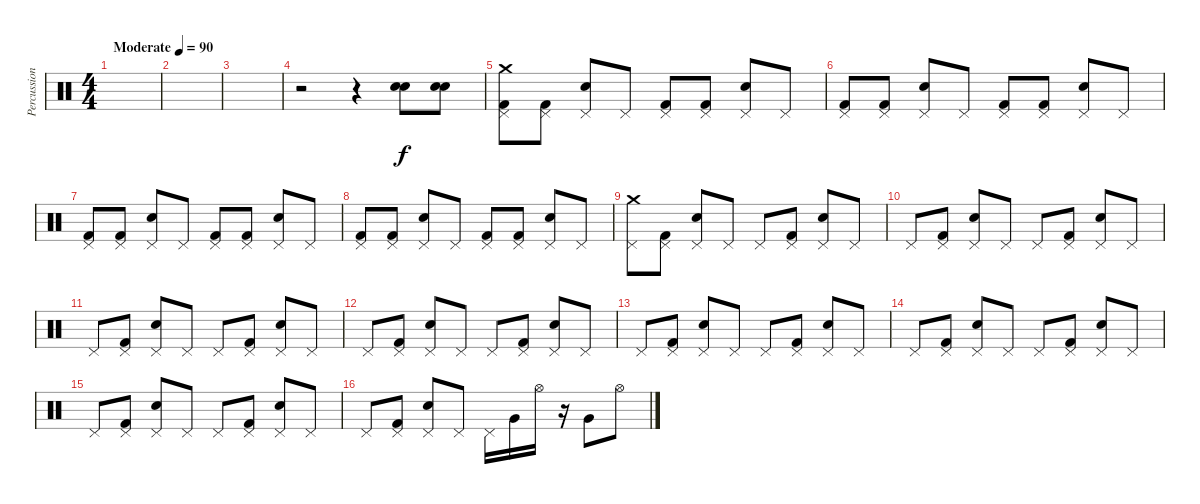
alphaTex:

\track ("Percussion" "Percussion") {instrument percussion}
\staff {score}
\articulation defaults
\ts (4 4)
\tempo (90 "Moderate")
\clef neutral
\ks c
|
|
|
r.2 r.4 ("Electric Snare (hit)" "Electric Snare (hit)").8 ("Electric Snare (hit)" "Electric Snare (hit)").8 |
("Pedal Hi-Hat (hit)" "Kick (hit) 2" "Crash medium (hit)").8 ("Pedal Hi-Hat (hit)" "Kick (hit) 2").8 ("Pedal Hi-Hat (hit)" "Electric Snare (hit)").8 "Pedal Hi-Hat (hit)".8 ("Pedal Hi-Hat (hit)" "Kick (hit) 2").8 ("Pedal Hi-Hat (hit)" "Kick (hit) 2").8 ("Pedal Hi-Hat (hit)" "Electric Snare (hit)").8 "Pedal Hi-Hat (hit)".8 |
("Pedal Hi-Hat (hit)" "Kick (hit) 2").8 ("Pedal Hi-Hat (hit)" "Kick (hit) 2").8 ("Pedal Hi-Hat (hit)" "Electric Snare (hit)").8 "Pedal Hi-Hat (hit)".8 ("Pedal Hi-Hat (hit)" "Kick (hit) 2").8 ("Pedal Hi-Hat (hit)" "Kick (hit) 2").8 ("Pedal Hi-Hat (hit)" "Electric Snare (hit)").8 "Pedal Hi-Hat (hit)".8 |
("Pedal Hi-Hat (hit)" "Kick (hit) 2").8 ("Pedal Hi-Hat (hit)" "Kick (hit) 2").8 ("Pedal Hi-Hat (hit)" "Electric Snare (hit)").8 "Pedal Hi-Hat (hit)".8 ("Pedal Hi-Hat (hit)" "Kick (hit) 2").8 ("Pedal Hi-Hat (hit)" "Kick (hit) 2").8 ("Pedal Hi-Hat (hit)" "Electric Snare (hit)").8 "Pedal Hi-Hat (hit)".8 |
("Pedal Hi-Hat (hit)" "Kick (hit) 2").8 ("Pedal Hi-Hat (hit)" "Kick (hit) 2").8 ("Pedal Hi-Hat (hit)" "Electric Snare (hit)").8 "Pedal Hi-Hat (hit)".8 ("Pedal Hi-Hat (hit)" "Kick (hit) 2").8 ("Pedal Hi-Hat (hit)" "Kick (hit) 2").8 ("Pedal Hi-Hat (hit)" "Electric Snare (hit)").8 "Pedal Hi-Hat (hit)".8 |
("Pedal Hi-Hat (hit)" "Crash medium (hit)").8 ("Pedal Hi-Hat (hit)" "Kick (hit) 2").8 ("Pedal Hi-Hat (hit)" "Electric Snare (hit)").8 "Pedal Hi-Hat (hit)".8 "Pedal Hi-Hat (hit)".8 ("Pedal Hi-Hat (hit)" "Kick (hit) 2").8 ("Pedal Hi-Hat (hit)" "Electric Snare (hit)").8 "Pedal Hi-Hat (hit)".8 |
"Pedal Hi-Hat (hit)".8 ("Pedal Hi-Hat (hit)" "Kick (hit) 2").8 ("Pedal Hi-Hat (hit)" "Electric Snare (hit)").8 "Pedal Hi-Hat (hit)".8 "Pedal Hi-Hat (hit)".8 ("Pedal Hi-Hat (hit)" "Kick (hit) 2").8 ("Pedal Hi-Hat (hit)" "Electric Snare (hit)").8 "Pedal Hi-Hat (hit)".8 |
"Pedal Hi-Hat (hit)".8 ("Pedal Hi-Hat (hit)" "Kick (hit) 2").8 ("Pedal Hi-Hat (hit)" "Electric Snare (hit)").8 "Pedal Hi-Hat (hit)".8 "Pedal Hi-Hat (hit)".8 ("Pedal Hi-Hat (hit)" "Kick (hit) 2").8 ("Pedal Hi-Hat (hit)" "Electric Snare (hit)").8 "Pedal Hi-Hat (hit)".8 |
"Pedal Hi-Hat (hit)".8 ("Pedal Hi-Hat (hit)" "Kick (hit) 2").8 ("Pedal Hi-Hat (hit)" "Electric Snare (hit)").8 "Pedal Hi-Hat (hit)".8 "Pedal Hi-Hat (hit)".8 ("Pedal Hi-Hat (hit)" "Kick (hit) 2").8 ("Pedal Hi-Hat (hit)" "Electric Snare (hit)").8 "Pedal Hi-Hat (hit)".8 |
"Pedal Hi-Hat (hit)".8 ("Pedal Hi-Hat (hit)" "Kick (hit) 2").8 ("Pedal Hi-Hat (hit)" "Electric Snare (hit)").8 "Pedal Hi-Hat (hit)".8 "Pedal Hi-Hat (hit)".8 ("Pedal Hi-Hat (hit)" "Kick (hit) 2").8 ("Pedal Hi-Hat (hit)" "Electric Snare (hit)").8 "Pedal Hi-Hat (hit)".8 |
"Pedal Hi-Hat (hit)".8 ("Pedal Hi-Hat (hit)" "Kick (hit) 2").8 ("Pedal Hi-Hat (hit)" "Electric Snare (hit)").8 "Pedal Hi-Hat (hit)".8 "Pedal Hi-Hat (hit)".8 ("Pedal Hi-Hat (hit)" "Kick (hit) 2").8 ("Pedal Hi-Hat (hit)" "Electric Snare (hit)").8 "Pedal Hi-Hat (hit)".8 |
"Pedal Hi-Hat (hit)".8 ("Pedal Hi-Hat (hit)" "Kick (hit) 2").8 ("Pedal Hi-Hat (hit)" "Electric Snare (hit)").8 "Pedal Hi-Hat (hit)".8 "Pedal Hi-Hat (hit)".8 ("Pedal Hi-Hat (hit)" "Kick (hit) 2").8 ("Pedal Hi-Hat (hit)" "Electric Snare (hit)").8 "Pedal Hi-Hat (hit)".8 |
"Pedal Hi-Hat (hit)".8 ("Pedal Hi-Hat (hit)" "Kick (hit) 2").8 ("Pedal Hi-Hat (hit)" "Electric Snare (hit)").8 "Pedal Hi-Hat (hit)".8 "Pedal Hi-Hat (hit)".16 "Very Low Tom (hit)".16 "Hi-Hat (open)".16 r.16 "Very Low Tom (hit)".8 "Hi-Hat (open)".8
